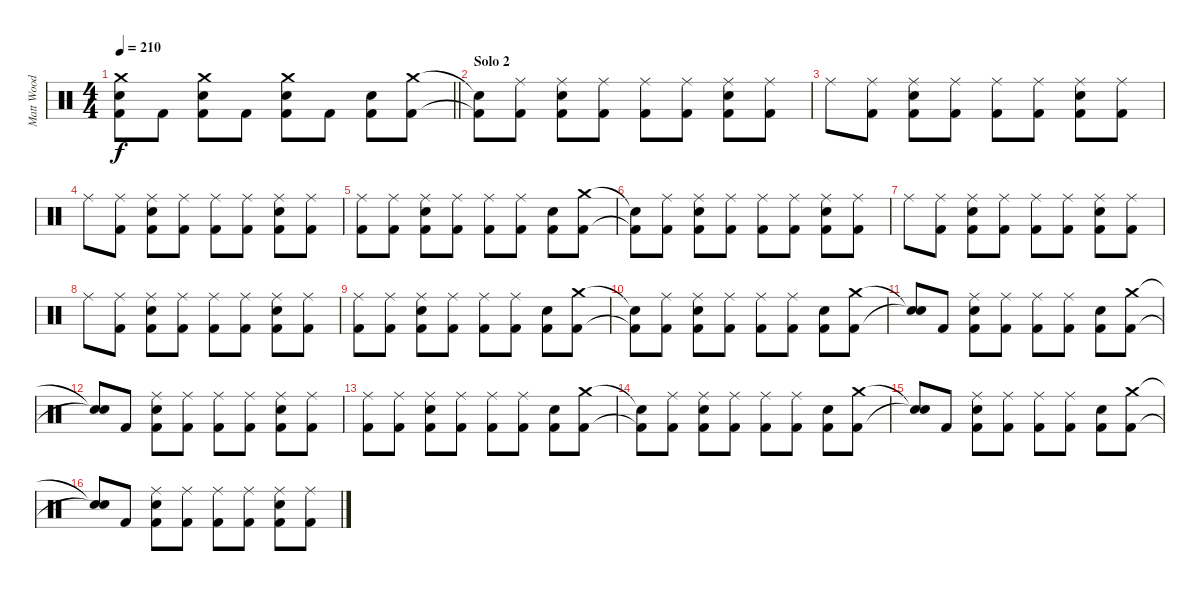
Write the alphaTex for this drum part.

\track ("Matt Wood" "Matt Wood") {instrument percussion}
\staff {score}
\articulation defaults
\ts (4 4)
\tempo 210
\clef neutral
\barLineRight lightlight
\ks c
("Crash medium (hit)" "Snare (hit) 2" "Kick (hit) 2").8{dy f} "Kick (hit) 2".8 ("Crash medium (hit)" "Snare (hit) 2" "Kick (hit) 2").8 "Kick (hit) 2".8 ("Crash medium (hit)" "Snare (hit) 2" "Kick (hit) 2").8 "Kick (hit) 2".8 ("Snare (hit) 2" "Kick (hit) 2").8 ("Crash medium (hit)" "Kick (hit) 2").8 |
\section ("" "Solo 2")
("Snare (hit)"{t} "Kick (hit) 2"{t}).8 ("Ride (middle)" "Kick (hit) 2").8 ("Ride (middle)" "Snare (hit) 2" "Kick (hit) 2").8 ("Ride (middle)" "Kick (hit) 2").8 ("Ride (middle)" "Kick (hit) 2").8 ("Ride (middle)" "Kick (hit) 2").8 ("Ride (middle)" "Snare (hit) 2" "Kick (hit) 2").8 ("Ride (middle)" "Kick (hit) 2").8 |
"Ride (middle)".8 ("Ride (middle)" "Kick (hit) 2").8 ("Ride (middle)" "Snare (hit) 2" "Kick (hit) 2").8 ("Ride (middle)" "Kick (hit) 2").8 ("Ride (middle)" "Kick (hit) 2").8 ("Ride (middle)" "Kick (hit) 2").8 ("Ride (middle)" "Snare (hit) 2" "Kick (hit) 2").8 ("Ride (middle)" "Kick (hit) 2").8 |
"Ride (middle)".8 ("Ride (middle)" "Kick (hit) 2").8 ("Ride (middle)" "Snare (hit) 2" "Kick (hit) 2").8 ("Ride (middle)" "Kick (hit) 2").8 ("Ride (middle)" "Kick (hit) 2").8 ("Ride (middle)" "Kick (hit) 2").8 ("Ride (middle)" "Snare (hit) 2" "Kick (hit) 2").8 ("Ride (middle)" "Kick (hit) 2").8 |
("Ride (middle)" "Kick (hit) 2").8 ("Ride (middle)" "Kick (hit) 2").8 ("Ride (middle)" "Snare (hit) 2" "Kick (hit) 2").8 ("Ride (middle)" "Kick (hit) 2").8 ("Ride (middle)" "Kick (hit) 2").8 ("Ride (middle)" "Kick (hit) 2").8 ("Snare (hit) 2" "Kick (hit) 2").8 ("Crash medium (hit)" "Kick (hit) 2").8 |
("Snare (hit)"{t} "Kick (hit) 2"{t}).8 ("Ride (middle)" "Kick (hit) 2").8 ("Ride (middle)" "Snare (hit) 2" "Kick (hit) 2").8 ("Ride (middle)" "Kick (hit) 2").8 ("Ride (middle)" "Kick (hit) 2").8 ("Ride (middle)" "Kick (hit) 2").8 ("Ride (middle)" "Snare (hit) 2" "Kick (hit) 2").8 ("Ride (middle)" "Kick (hit) 2").8 |
"Ride (middle)".8 ("Ride (middle)" "Kick (hit) 2").8 ("Ride (middle)" "Snare (hit) 2" "Kick (hit) 2").8 ("Ride (middle)" "Kick (hit) 2").8 ("Ride (middle)" "Kick (hit) 2").8 ("Ride (middle)" "Kick (hit) 2").8 ("Ride (middle)" "Snare (hit) 2" "Kick (hit) 2").8 ("Ride (middle)" "Kick (hit) 2").8 |
"Ride (middle)".8 ("Ride (middle)" "Kick (hit) 2").8 ("Ride (middle)" "Snare (hit) 2" "Kick (hit) 2").8 ("Ride (middle)" "Kick (hit) 2").8 ("Ride (middle)" "Kick (hit) 2").8 ("Ride (middle)" "Kick (hit) 2").8 ("Ride (middle)" "Snare (hit) 2" "Kick (hit) 2").8 ("Ride (middle)" "Kick (hit) 2").8 |
("Ride (middle)" "Kick (hit) 2").8 ("Ride (middle)" "Kick (hit) 2").8 ("Ride (middle)" "Snare (hit) 2" "Kick (hit) 2").8 ("Ride (middle)" "Kick (hit) 2").8 ("Ride (middle)" "Kick (hit) 2").8 ("Ride (middle)" "Kick (hit) 2").8 ("Snare (hit) 2" "Kick (hit) 2").8 ("Crash medium (hit)" "Kick (hit) 2").8 |
("Snare (hit)"{t} "Kick (hit) 2"{t}).8 ("Ride (middle)" "Kick (hit) 2").8 ("Ride (middle)" "Snare (hit) 2" "Kick (hit) 2").8 ("Ride (middle)" "Kick (hit) 2").8 ("Ride (middle)" "Kick (hit) 2").8 ("Ride (middle)" "Kick (hit) 2").8 ("Snare (hit) 2" "Kick (hit) 2").8 ("Crash medium (hit)" "Kick (hit) 2").8 |
("Snare (hit)"{t} "Snare (hit)"{t}).8 "Kick (hit) 2".8 ("Ride (middle)" "Snare (hit) 2" "Kick (hit) 2").8 ("Ride (middle)" "Kick (hit) 2").8 ("Ride (middle)" "Kick (hit) 2").8 ("Ride (middle)" "Kick (hit) 2").8 ("Snare (hit) 2" "Kick (hit) 2").8 ("Crash medium (hit)" "Kick (hit) 2").8 |
("Snare (hit)"{t} "Snare (hit)"{t}).8 "Kick (hit) 2".8 ("Ride (middle)" "Snare (hit) 2" "Kick (hit) 2").8 ("Ride (middle)" "Kick (hit) 2").8 ("Ride (middle)" "Kick (hit) 2").8 ("Ride (middle)" "Kick (hit) 2").8 ("Ride (middle)" "Snare (hit) 2" "Kick (hit) 2").8 ("Ride (middle)" "Kick (hit) 2").8 |
("Ride (middle)" "Kick (hit) 2").8 ("Ride (middle)" "Kick (hit) 2").8 ("Ride (middle)" "Snare (hit) 2" "Kick (hit) 2").8 ("Ride (middle)" "Kick (hit) 2").8 ("Ride (middle)" "Kick (hit) 2").8 ("Ride (middle)" "Kick (hit) 2").8 ("Snare (hit) 2" "Kick (hit) 2").8 ("Crash medium (hit)" "Kick (hit) 2").8 |
("Snare (hit)"{t} "Kick (hit) 2"{t}).8 ("Ride (middle)" "Kick (hit) 2").8 ("Ride (middle)" "Snare (hit) 2" "Kick (hit) 2").8 ("Ride (middle)" "Kick (hit) 2").8 ("Ride (middle)" "Kick (hit) 2").8 ("Ride (middle)" "Kick (hit) 2").8 ("Snare (hit) 2" "Kick (hit) 2").8 ("Crash medium (hit)" "Kick (hit) 2").8 |
("Snare (hit)"{t} "Snare (hit)"{t}).8 "Kick (hit) 2".8 ("Ride (middle)" "Snare (hit) 2" "Kick (hit) 2").8 ("Ride (middle)" "Kick (hit) 2").8 ("Ride (middle)" "Kick (hit) 2").8 ("Ride (middle)" "Kick (hit) 2").8 ("Snare (hit) 2" "Kick (hit) 2").8 ("Crash medium (hit)" "Kick (hit) 2").8 |
("Snare (hit)"{t} "Snare (hit)"{t}).8 "Kick (hit) 2".8 ("Ride (middle)" "Snare (hit) 2" "Kick (hit) 2").8 ("Ride (middle)" "Kick (hit) 2").8 ("Ride (middle)" "Kick (hit) 2").8 ("Ride (middle)" "Kick (hit) 2").8 ("Ride (middle)" "Snare (hit) 2" "Kick (hit) 2").8 ("Ride (middle)" "Kick (hit) 2").8
